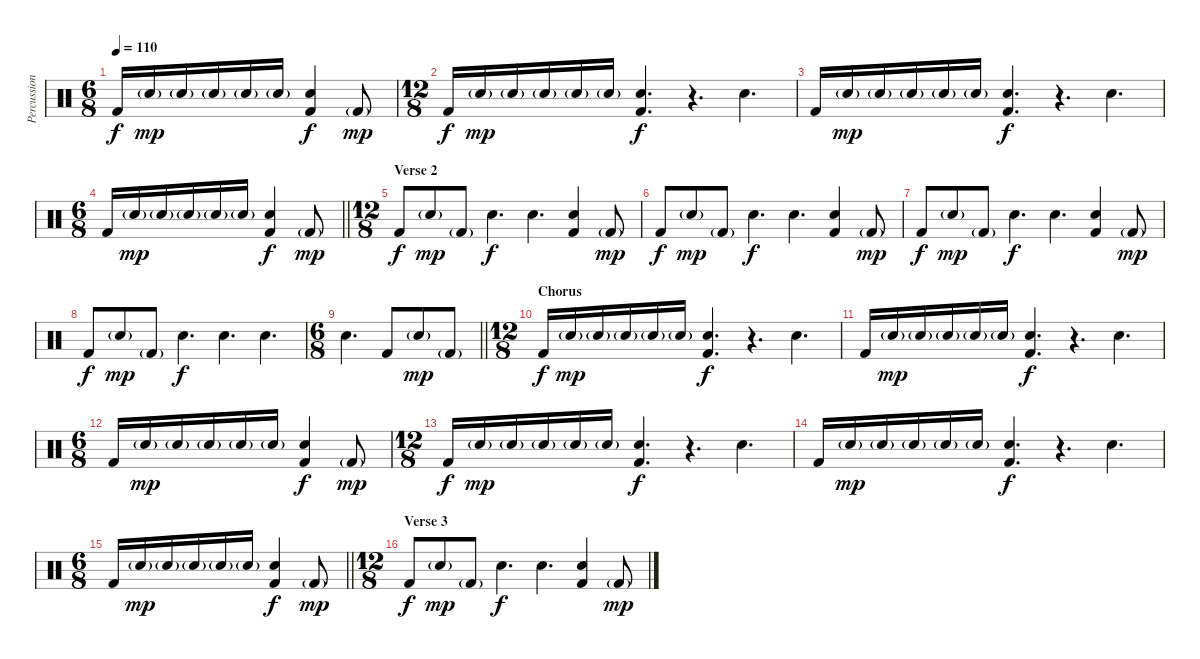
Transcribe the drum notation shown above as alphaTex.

\track ("Percussion" "Percussion") {instrument percussion}
\staff {score}
\articulation defaults
\ts (6 8)
\tempo 110
\clef neutral
\ks c "Kick (hit) 2".16{dy f} "Snare (hit) 2"{g}.16{dy mp} "Snare (hit) 2"{g}.16 "Snare (hit) 2"{g}.16 "Snare (hit) 2"{g}.16 "Snare (hit) 2"{g}.16
("Snare (hit) 2" "Kick (hit) 2").4{dy f} "Kick (hit) 2"{g}.8{dy mp} |
\ts (12 8)
"Kick (hit) 2".16{dy f} "Snare (hit) 2"{g}.16{dy mp} "Snare (hit) 2"{g}.16 "Snare (hit) 2"{g}.16 "Snare (hit) 2"{g}.16 "Snare (hit) 2"{g}.16 ("Snare (hit) 2" "Kick (hit) 2").4{d dy f} r.4{d} "Snare (hit) 2".4{d} |
"Kick (hit) 2".16 "Snare (hit) 2"{g}.16{dy mp} "Snare (hit) 2"{g}.16 "Snare (hit) 2"{g}.16 "Snare (hit) 2"{g}.16 "Snare (hit) 2"{g}.16 ("Snare (hit) 2" "Kick (hit) 2").4{d dy f} r.4{d} "Snare (hit) 2".4{d} |
\ts (6 8)
\barLineRight lightlight "Kick (hit) 2".16 "Snare (hit) 2"{g}.16{dy mp} "Snare (hit) 2"{g}.16 "Snare (hit) 2"{g}.16 "Snare (hit) 2"{g}.16 "Snare (hit) 2"{g}.16
("Snare (hit) 2" "Kick (hit) 2").4{dy f} "Kick (hit) 2"{g}.8{dy mp} |
\ts (12 8)
\section ("" "Verse 2")
"Kick (hit) 2".8{dy f} "Snare (hit) 2"{g}.8{dy mp} "Kick (hit) 2"{g}.8 "Snare (hit) 2".4{d dy f} "Snare (hit) 2".4{d} ("Snare (hit) 2" "Kick (hit) 2").4 "Kick (hit) 2"{g}.8{dy mp} |
"Kick (hit) 2".8{dy f} "Snare (hit) 2"{g}.8{dy mp} "Kick (hit) 2"{g}.8 "Snare (hit) 2".4{d dy f} "Snare (hit) 2".4{d} ("Snare (hit) 2" "Kick (hit) 2").4 "Kick (hit) 2"{g}.8{dy mp} |
"Kick (hit) 2".8{dy f} "Snare (hit) 2"{g}.8{dy mp} "Kick (hit) 2"{g}.8 "Snare (hit) 2".4{d dy f} "Snare (hit) 2".4{d} ("Snare (hit) 2" "Kick (hit) 2").4 "Kick (hit) 2"{g}.8{dy mp} |
"Kick (hit) 2".8{dy f} "Snare (hit) 2"{g}.8{dy mp} "Kick (hit) 2"{g}.8 "Snare (hit) 2".4{d dy f} "Snare (hit) 2".4{d} "Snare (hit) 2".4{d} |
\ts (6 8)
\barLineRight lightlight "Snare (hit) 2".4{d} "Kick (hit) 2".8 "Snare (hit) 2"{g}.8{dy mp} "Kick (hit) 2"{g}.8
|
\ts (12 8)
\section ("" "Chorus")
"Kick (hit) 2".16{dy f} "Snare (hit) 2"{g}.16{dy mp} "Snare (hit) 2"{g}.16 "Snare (hit) 2"{g}.16 "Snare (hit) 2"{g}.16 "Snare (hit) 2"{g}.16 ("Snare (hit) 2" "Kick (hit) 2").4{d dy f} r.4{d} "Snare (hit) 2".4{d} |
"Kick (hit) 2".16 "Snare (hit) 2"{g}.16{dy mp} "Snare (hit) 2"{g}.16 "Snare (hit) 2"{g}.16 "Snare (hit) 2"{g}.16 "Snare (hit) 2"{g}.16 ("Snare (hit) 2" "Kick (hit) 2").4{d dy f} r.4{d} "Snare (hit) 2".4{d} |
\ts (6 8)
"Kick (hit) 2".16 "Snare (hit) 2"{g}.16{dy mp} "Snare (hit) 2"{g}.16 "Snare (hit) 2"{g}.16 "Snare (hit) 2"{g}.16 "Snare (hit) 2"{g}.16 ("Snare (hit) 2" "Kick (hit) 2").4{dy f} "Kick (hit) 2"{g}.8{dy mp} |
\ts (12 8)
"Kick (hit) 2".16{dy f} "Snare (hit) 2"{g}.16{dy mp} "Snare (hit) 2"{g}.16 "Snare (hit) 2"{g}.16 "Snare (hit) 2"{g}.16 "Snare (hit) 2"{g}.16 ("Snare (hit) 2" "Kick (hit) 2").4{d dy f} r.4{d} "Snare (hit) 2".4{d} |
"Kick (hit) 2".16 "Snare (hit) 2"{g}.16{dy mp} "Snare (hit) 2"{g}.16 "Snare (hit) 2"{g}.16 "Snare (hit) 2"{g}.16 "Snare (hit) 2"{g}.16 ("Snare (hit) 2" "Kick (hit) 2").4{d dy f} r.4{d} "Snare (hit) 2".4{d} |
\ts (6 8)
\barLineRight lightlight "Kick (hit) 2".16 "Snare (hit) 2"{g}.16{dy mp} "Snare (hit) 2"{g}.16 "Snare (hit) 2"{g}.16 "Snare (hit) 2"{g}.16 "Snare (hit) 2"{g}.16
("Snare (hit) 2" "Kick (hit) 2").4{dy f} "Kick (hit) 2"{g}.8{dy mp} |
\ts (12 8)
\section ("" "Verse 3")
"Kick (hit) 2".8{dy f} "Snare (hit) 2"{g}.8{dy mp} "Kick (hit) 2"{g}.8 "Snare (hit) 2".4{d dy f} "Snare (hit) 2".4{d} ("Snare (hit) 2" "Kick (hit) 2").4 "Kick (hit) 2"{g}.8{dy mp}
